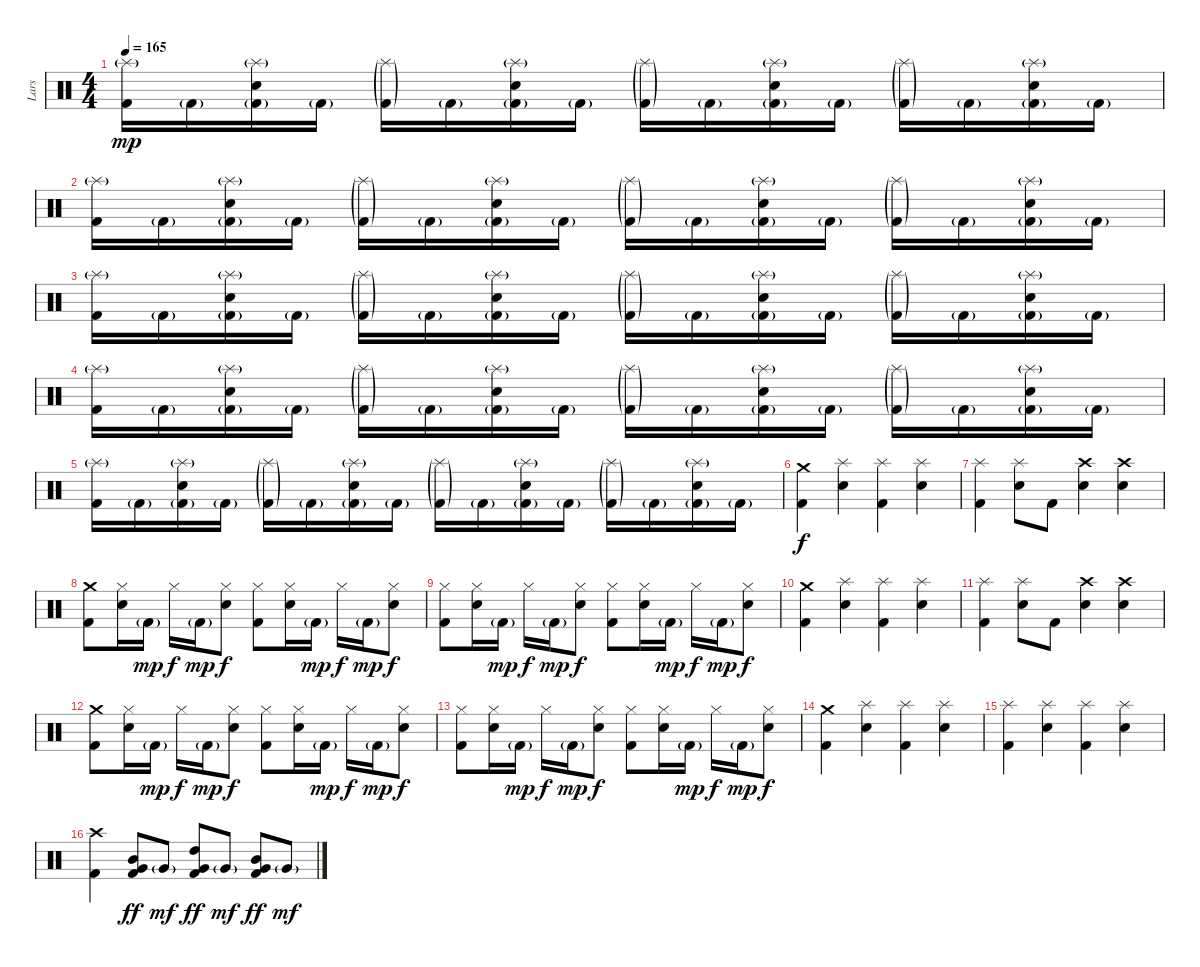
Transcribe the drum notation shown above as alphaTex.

\track ("Lars" "Lars") {instrument percussion}
\staff {score}
\articulation defaults
\ts (4 4)
\tempo 165
\clef neutral
\ks c
("Splash (hit)"{g} "Kick (hit) 2").16{dy mp} "Kick (hit) 2"{g}.16 ("Splash (hit)"{g} "Snare (hit) 2" "Kick (hit) 2"{g}).16 "Kick (hit) 2"{g}.16 ("Splash (hit)"{g} "Kick (hit) 2"{g}).16 "Kick (hit) 2"{g}.16 ("Splash (hit)"{g} "Snare (hit) 2" "Kick (hit) 2"{g}).16 "Kick (hit) 2"{g}.16 ("Splash (hit)"{g} "Kick (hit) 2"{g}).16 "Kick (hit) 2"{g}.16 ("Splash (hit)"{g} "Snare (hit) 2" "Kick (hit) 2"{g}).16 "Kick (hit) 2"{g}.16 ("Splash (hit)"{g} "Kick (hit) 2"{g}).16 "Kick (hit) 2"{g}.16 ("Splash (hit)"{g} "Snare (hit) 2" "Kick (hit) 2"{g}).16 "Kick (hit) 2"{g}.16 |
("Splash (hit)"{g} "Kick (hit) 2").16 "Kick (hit) 2"{g}.16 ("Splash (hit)"{g} "Snare (hit) 2" "Kick (hit) 2"{g}).16 "Kick (hit) 2"{g}.16 ("Splash (hit)"{g} "Kick (hit) 2"{g}).16 "Kick (hit) 2"{g}.16 ("Splash (hit)"{g} "Snare (hit) 2" "Kick (hit) 2"{g}).16 "Kick (hit) 2"{g}.16 ("Splash (hit)"{g} "Kick (hit) 2"{g}).16 "Kick (hit) 2"{g}.16 ("Splash (hit)"{g} "Snare (hit) 2" "Kick (hit) 2"{g}).16 "Kick (hit) 2"{g}.16 ("Splash (hit)"{g} "Kick (hit) 2"{g}).16 "Kick (hit) 2"{g}.16 ("Splash (hit)"{g} "Snare (hit) 2" "Kick (hit) 2"{g}).16 "Kick (hit) 2"{g}.16 |
("Splash (hit)"{g} "Kick (hit) 2").16 "Kick (hit) 2"{g}.16 ("Splash (hit)"{g} "Snare (hit) 2" "Kick (hit) 2"{g}).16 "Kick (hit) 2"{g}.16 ("Splash (hit)"{g} "Kick (hit) 2"{g}).16 "Kick (hit) 2"{g}.16 ("Splash (hit)"{g} "Snare (hit) 2" "Kick (hit) 2"{g}).16 "Kick (hit) 2"{g}.16 ("Splash (hit)"{g} "Kick (hit) 2"{g}).16 "Kick (hit) 2"{g}.16 ("Splash (hit)"{g} "Snare (hit) 2" "Kick (hit) 2"{g}).16 "Kick (hit) 2"{g}.16 ("Splash (hit)"{g} "Kick (hit) 2"{g}).16 "Kick (hit) 2"{g}.16 ("Splash (hit)"{g} "Snare (hit) 2" "Kick (hit) 2"{g}).16 "Kick (hit) 2"{g}.16 |
("Splash (hit)"{g} "Kick (hit) 2").16 "Kick (hit) 2"{g}.16 ("Splash (hit)"{g} "Snare (hit) 2" "Kick (hit) 2"{g}).16 "Kick (hit) 2"{g}.16 ("Splash (hit)"{g} "Kick (hit) 2"{g}).16 "Kick (hit) 2"{g}.16 ("Splash (hit)"{g} "Snare (hit) 2" "Kick (hit) 2"{g}).16 "Kick (hit) 2"{g}.16 ("Splash (hit)"{g} "Kick (hit) 2"{g}).16 "Kick (hit) 2"{g}.16 ("Splash (hit)"{g} "Snare (hit) 2" "Kick (hit) 2"{g}).16 "Kick (hit) 2"{g}.16 ("Splash (hit)"{g} "Kick (hit) 2"{g}).16 "Kick (hit) 2"{g}.16 ("Splash (hit)"{g} "Snare (hit) 2" "Kick (hit) 2"{g}).16 "Kick (hit) 2"{g}.16 |
("Splash (hit)"{g} "Kick (hit) 2").16 "Kick (hit) 2"{g}.16 ("Splash (hit)"{g} "Snare (hit) 2" "Kick (hit) 2"{g}).16 "Kick (hit) 2"{g}.16 ("Splash (hit)"{g} "Kick (hit) 2"{g}).16 "Kick (hit) 2"{g}.16 ("Splash (hit)"{g} "Snare (hit) 2" "Kick (hit) 2"{g}).16 "Kick (hit) 2"{g}.16 ("Splash (hit)"{g} "Kick (hit) 2"{g}).16 "Kick (hit) 2"{g}.16 ("Splash (hit)"{g} "Snare (hit) 2" "Kick (hit) 2"{g}).16 "Kick (hit) 2"{g}.16 ("Splash (hit)"{g} "Kick (hit) 2"{g}).16 "Kick (hit) 2"{g}.16 ("Splash (hit)"{g} "Snare (hit) 2" "Kick (hit) 2"{g}).16 "Kick (hit) 2"{g}.16 |
("Crash medium (hit)" "Kick (hit) 2").4{dy f} ("Splash (hit)" "Snare (hit) 2").4 ("Splash (hit)" "Kick (hit) 2").4 ("Splash (hit)" "Snare (hit) 2").4 |
("Splash (hit)" "Kick (hit) 2").4 ("Splash (hit)" "Snare (hit) 2").8 "Kick (hit) 2".8 ("Crash high (hit)" "Snare (hit) 2").4 ("Crash high (hit)" "Snare (hit) 2").4 |
("Crash medium (hit)" "Kick (hit) 2").8 ("Hi-Hat (closed)" "Snare (hit) 2").16 "Kick (hit) 2"{g}.16{dy mp} "Hi-Hat (closed)".16{dy f} "Kick (hit) 2"{g}.16{dy mp} ("Hi-Hat (closed)" "Snare (hit) 2").8{dy f} ("Hi-Hat (closed)" "Kick (hit) 2").8 ("Hi-Hat (closed)" "Snare (hit) 2").16 "Kick (hit) 2"{g}.16{dy mp} "Hi-Hat (closed)".16{dy f} "Kick (hit) 2"{g}.16{dy mp} ("Hi-Hat (closed)" "Snare (hit) 2").8{dy f} |
("Hi-Hat (closed)" "Kick (hit) 2").8 ("Hi-Hat (closed)" "Snare (hit) 2").16 "Kick (hit) 2"{g}.16{dy mp} "Hi-Hat (closed)".16{dy f} "Kick (hit) 2"{g}.16{dy mp} ("Hi-Hat (closed)" "Snare (hit) 2").8{dy f} ("Hi-Hat (closed)" "Kick (hit) 2").8 ("Hi-Hat (closed)" "Snare (hit) 2").16 "Kick (hit) 2"{g}.16{dy mp} "Hi-Hat (closed)".16{dy f} "Kick (hit) 2"{g}.16{dy mp} ("Hi-Hat (closed)" "Snare (hit) 2").8{dy f} |
("Crash medium (hit)" "Kick (hit) 2").4 ("Splash (hit)" "Snare (hit) 2").4 ("Splash (hit)" "Kick (hit) 2").4 ("Splash (hit)" "Snare (hit) 2").4 |
("Splash (hit)" "Kick (hit) 2").4 ("Splash (hit)" "Snare (hit) 2").8 "Kick (hit) 2".8 ("Crash high (hit)" "Snare (hit) 2").4 ("Crash high (hit)" "Snare (hit) 2").4 |
("Crash medium (hit)" "Kick (hit) 2").8 ("Hi-Hat (closed)" "Snare (hit) 2").16 "Kick (hit) 2"{g}.16{dy mp} "Hi-Hat (closed)".16{dy f} "Kick (hit) 2"{g}.16{dy mp} ("Hi-Hat (closed)" "Snare (hit) 2").8{dy f} ("Hi-Hat (closed)" "Kick (hit) 2").8 ("Hi-Hat (closed)" "Snare (hit) 2").16 "Kick (hit) 2"{g}.16{dy mp} "Hi-Hat (closed)".16{dy f} "Kick (hit) 2"{g}.16{dy mp} ("Hi-Hat (closed)" "Snare (hit) 2").8{dy f} |
("Hi-Hat (closed)" "Kick (hit) 2").8 ("Hi-Hat (closed)" "Snare (hit) 2").16 "Kick (hit) 2"{g}.16{dy mp} "Hi-Hat (closed)".16{dy f} "Kick (hit) 2"{g}.16{dy mp} ("Hi-Hat (closed)" "Snare (hit) 2").8{dy f} ("Hi-Hat (closed)" "Kick (hit) 2").8 ("Hi-Hat (closed)" "Snare (hit) 2").16 "Kick (hit) 2"{g}.16{dy mp} "Hi-Hat (closed)".16{dy f} "Kick (hit) 2"{g}.16{dy mp} ("Hi-Hat (closed)" "Snare (hit) 2").8{dy f} |
("Crash medium (hit)" "Kick (hit) 2").4 ("Splash (hit)" "Snare (hit) 2").4 ("Splash (hit)" "Kick (hit) 2").4 ("Splash (hit)" "Snare (hit) 2").4 |
("Splash (hit)" "Kick (hit) 2").4 ("Splash (hit)" "Snare (hit) 2").4 ("Splash (hit)" "Kick (hit) 2").4 ("Splash (hit)" "Snare (hit) 2").4 |
("Crash high (hit)" "Kick (hit) 2").4 ("Mid Tom (hit)" "Very Low Tom (hit)" "Kick (hit) 2").8{dy ff} "Very Low Tom (hit)"{g}.8{dy mf} ("High Tom (hit)" "Very Low Tom (hit)" "Kick (hit) 2").8{dy ff} "Very Low Tom (hit)"{g}.8{dy mf} ("Mid Tom (hit)" "Very Low Tom (hit)" "Kick (hit) 2").8{dy ff} "Very Low Tom (hit)"{g}.8{dy mf}
